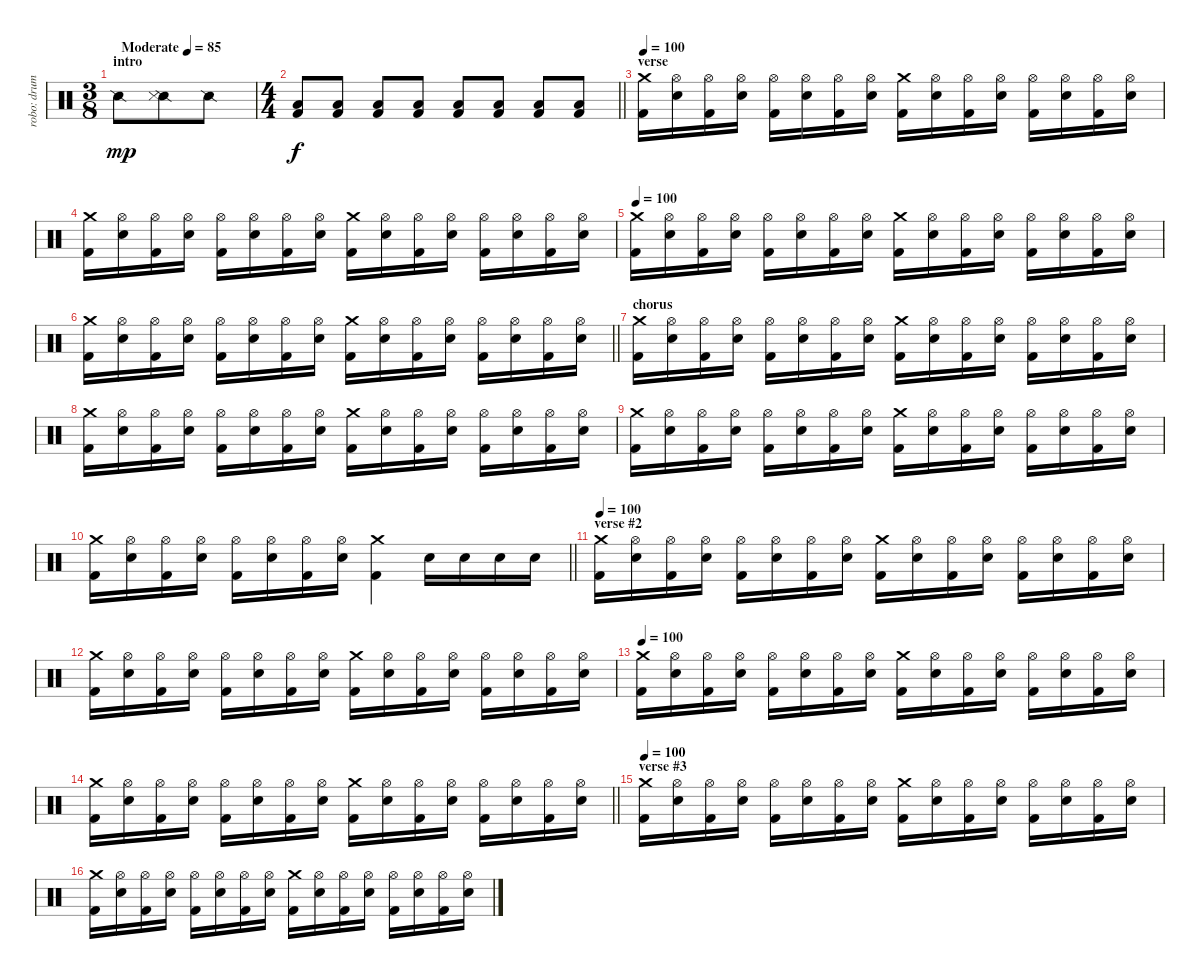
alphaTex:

\track ("robo: drums" "robo: drum") {instrument percussion}
\staff {score}
\articulation defaults
\ts (3 8)
\section ("" "intro")
\tempo (85 "Moderate")
\clef neutral
\ks c "Snare (side stick) 2".8{dy mp}
("Snare (side stick) 2" "Metronome (hit)").8 "Snare (side stick) 2".8 |
\ts (4 4)
\barLineRight lightlight
("Low Tom (hit)" "Kick (hit) 2").8{dy f} ("Low Tom (hit)" "Kick (hit) 2").8 ("Low Tom (hit)" "Kick (hit) 2").8 ("Low Tom (hit)" "Kick (hit) 2").8 ("Low Tom (hit)" "Kick (hit) 2").8 ("Low Tom (hit)" "Kick (hit) 2").8 ("Low Tom (hit)" "Kick (hit) 2").8 ("Low Tom (hit)" "Kick (hit) 2").8 |
\section ("" "verse")
\tempo 100
("Crash medium (hit)" "Kick (hit) 2").16 ("Hi-Hat (open)" "Electric Snare (hit)").16 ("Hi-Hat (open)" "Kick (hit) 2").16 ("Hi-Hat (open)" "Electric Snare (hit)").16 ("Hi-Hat (open)" "Kick (hit) 2").16 ("Hi-Hat (open)" "Electric Snare (hit)").16 ("Hi-Hat (open)" "Kick (hit) 2").16 ("Hi-Hat (open)" "Electric Snare (hit)").16 ("Crash medium (hit)" "Kick (hit) 2").16 ("Hi-Hat (open)" "Electric Snare (hit)").16 ("Hi-Hat (open)" "Kick (hit) 2").16 ("Hi-Hat (open)" "Electric Snare (hit)").16 ("Hi-Hat (open)" "Kick (hit) 2").16 ("Hi-Hat (open)" "Electric Snare (hit)").16 ("Hi-Hat (open)" "Kick (hit) 2").16 ("Hi-Hat (open)" "Electric Snare (hit)").16 |
("Crash medium (hit)" "Kick (hit) 2").16 ("Hi-Hat (open)" "Electric Snare (hit)").16 ("Hi-Hat (open)" "Kick (hit) 2").16 ("Hi-Hat (open)" "Electric Snare (hit)").16 ("Hi-Hat (open)" "Kick (hit) 2").16 ("Hi-Hat (open)" "Electric Snare (hit)").16 ("Hi-Hat (open)" "Kick (hit) 2").16 ("Hi-Hat (open)" "Electric Snare (hit)").16 ("Crash medium (hit)" "Kick (hit) 2").16 ("Hi-Hat (open)" "Electric Snare (hit)").16 ("Hi-Hat (open)" "Kick (hit) 2").16 ("Hi-Hat (open)" "Electric Snare (hit)").16 ("Hi-Hat (open)" "Kick (hit) 2").16 ("Hi-Hat (open)" "Electric Snare (hit)").16 ("Hi-Hat (open)" "Kick (hit) 2").16 ("Hi-Hat (open)" "Electric Snare (hit)").16 |
\tempo 100
("Crash medium (hit)" "Kick (hit) 2").16 ("Hi-Hat (open)" "Electric Snare (hit)").16 ("Hi-Hat (open)" "Kick (hit) 2").16 ("Hi-Hat (open)" "Electric Snare (hit)").16 ("Hi-Hat (open)" "Kick (hit) 2").16 ("Hi-Hat (open)" "Electric Snare (hit)").16 ("Hi-Hat (open)" "Kick (hit) 2").16 ("Hi-Hat (open)" "Electric Snare (hit)").16 ("Crash medium (hit)" "Kick (hit) 2").16 ("Hi-Hat (open)" "Electric Snare (hit)").16 ("Hi-Hat (open)" "Kick (hit) 2").16 ("Hi-Hat (open)" "Electric Snare (hit)").16 ("Hi-Hat (open)" "Kick (hit) 2").16 ("Hi-Hat (open)" "Electric Snare (hit)").16 ("Hi-Hat (open)" "Kick (hit) 2").16 ("Hi-Hat (open)" "Electric Snare (hit)").16 |
\barLineRight lightlight
("Crash medium (hit)" "Kick (hit) 2").16 ("Hi-Hat (open)" "Electric Snare (hit)").16 ("Hi-Hat (open)" "Kick (hit) 2").16 ("Hi-Hat (open)" "Electric Snare (hit)").16 ("Hi-Hat (open)" "Kick (hit) 2").16 ("Hi-Hat (open)" "Electric Snare (hit)").16 ("Hi-Hat (open)" "Kick (hit) 2").16 ("Hi-Hat (open)" "Electric Snare (hit)").16 ("Crash medium (hit)" "Kick (hit) 2").16 ("Hi-Hat (open)" "Electric Snare (hit)").16 ("Hi-Hat (open)" "Kick (hit) 2").16 ("Hi-Hat (open)" "Electric Snare (hit)").16 ("Hi-Hat (open)" "Kick (hit) 2").16 ("Hi-Hat (open)" "Electric Snare (hit)").16 ("Hi-Hat (open)" "Kick (hit) 2").16 ("Hi-Hat (open)" "Electric Snare (hit)").16 |
\section ("" "chorus")
("Crash medium (hit)" "Kick (hit) 2").16 ("Hi-Hat (open)" "Electric Snare (hit)").16 ("Hi-Hat (open)" "Kick (hit) 2").16 ("Hi-Hat (open)" "Electric Snare (hit)").16 ("Hi-Hat (open)" "Kick (hit) 2").16 ("Hi-Hat (open)" "Electric Snare (hit)").16 ("Hi-Hat (open)" "Kick (hit) 2").16 ("Hi-Hat (open)" "Electric Snare (hit)").16 ("Crash medium (hit)" "Kick (hit) 2").16 ("Hi-Hat (open)" "Electric Snare (hit)").16 ("Hi-Hat (open)" "Kick (hit) 2").16 ("Hi-Hat (open)" "Electric Snare (hit)").16 ("Hi-Hat (open)" "Kick (hit) 2").16 ("Hi-Hat (open)" "Electric Snare (hit)").16 ("Hi-Hat (open)" "Kick (hit) 2").16 ("Hi-Hat (open)" "Electric Snare (hit)").16 |
("Crash medium (hit)" "Kick (hit) 2").16 ("Hi-Hat (open)" "Electric Snare (hit)").16 ("Hi-Hat (open)" "Kick (hit) 2").16 ("Hi-Hat (open)" "Electric Snare (hit)").16 ("Hi-Hat (open)" "Kick (hit) 2").16 ("Hi-Hat (open)" "Electric Snare (hit)").16 ("Hi-Hat (open)" "Kick (hit) 2").16 ("Hi-Hat (open)" "Electric Snare (hit)").16 ("Crash medium (hit)" "Kick (hit) 2").16 ("Hi-Hat (open)" "Electric Snare (hit)").16 ("Hi-Hat (open)" "Kick (hit) 2").16 ("Hi-Hat (open)" "Electric Snare (hit)").16 ("Hi-Hat (open)" "Kick (hit) 2").16 ("Hi-Hat (open)" "Electric Snare (hit)").16 ("Hi-Hat (open)" "Kick (hit) 2").16 ("Hi-Hat (open)" "Electric Snare (hit)").16 |
("Crash medium (hit)" "Kick (hit) 2").16 ("Hi-Hat (open)" "Electric Snare (hit)").16 ("Hi-Hat (open)" "Kick (hit) 2").16 ("Hi-Hat (open)" "Electric Snare (hit)").16 ("Hi-Hat (open)" "Kick (hit) 2").16 ("Hi-Hat (open)" "Electric Snare (hit)").16 ("Hi-Hat (open)" "Kick (hit) 2").16 ("Hi-Hat (open)" "Electric Snare (hit)").16 ("Crash medium (hit)" "Kick (hit) 2").16 ("Hi-Hat (open)" "Electric Snare (hit)").16 ("Hi-Hat (open)" "Kick (hit) 2").16 ("Hi-Hat (open)" "Electric Snare (hit)").16 ("Hi-Hat (open)" "Kick (hit) 2").16 ("Hi-Hat (open)" "Electric Snare (hit)").16 ("Hi-Hat (open)" "Kick (hit) 2").16 ("Hi-Hat (open)" "Electric Snare (hit)").16 |
\barLineRight lightlight
("Crash medium (hit)" "Kick (hit) 2").16 ("Hi-Hat (open)" "Electric Snare (hit)").16 ("Hi-Hat (open)" "Kick (hit) 2").16 ("Hi-Hat (open)" "Electric Snare (hit)").16 ("Hi-Hat (open)" "Kick (hit) 2").16 ("Hi-Hat (open)" "Electric Snare (hit)").16 ("Hi-Hat (open)" "Kick (hit) 2").16 ("Hi-Hat (open)" "Electric Snare (hit)").16 ("Crash medium (hit)" "Kick (hit) 2").4 "Electric Snare (hit)".16 "Electric Snare (hit)".16 "Electric Snare (hit)".16 "Electric Snare (hit)".16 |
\section ("" "verse #2")
\tempo 100
("Crash medium (hit)" "Kick (hit) 2").16 ("Hi-Hat (open)" "Electric Snare (hit)").16 ("Hi-Hat (open)" "Kick (hit) 2").16 ("Hi-Hat (open)" "Electric Snare (hit)").16 ("Hi-Hat (open)" "Kick (hit) 2").16 ("Hi-Hat (open)" "Electric Snare (hit)").16 ("Hi-Hat (open)" "Kick (hit) 2").16 ("Hi-Hat (open)" "Electric Snare (hit)").16 ("Crash medium (hit)" "Kick (hit) 2").16 ("Hi-Hat (open)" "Electric Snare (hit)").16 ("Hi-Hat (open)" "Kick (hit) 2").16 ("Hi-Hat (open)" "Electric Snare (hit)").16 ("Hi-Hat (open)" "Kick (hit) 2").16 ("Hi-Hat (open)" "Electric Snare (hit)").16 ("Hi-Hat (open)" "Kick (hit) 2").16 ("Hi-Hat (open)" "Electric Snare (hit)").16 |
("Crash medium (hit)" "Kick (hit) 2").16 ("Hi-Hat (open)" "Electric Snare (hit)").16 ("Hi-Hat (open)" "Kick (hit) 2").16 ("Hi-Hat (open)" "Electric Snare (hit)").16 ("Hi-Hat (open)" "Kick (hit) 2").16 ("Hi-Hat (open)" "Electric Snare (hit)").16 ("Hi-Hat (open)" "Kick (hit) 2").16 ("Hi-Hat (open)" "Electric Snare (hit)").16 ("Crash medium (hit)" "Kick (hit) 2").16 ("Hi-Hat (open)" "Electric Snare (hit)").16 ("Hi-Hat (open)" "Kick (hit) 2").16 ("Hi-Hat (open)" "Electric Snare (hit)").16 ("Hi-Hat (open)" "Kick (hit) 2").16 ("Hi-Hat (open)" "Electric Snare (hit)").16 ("Hi-Hat (open)" "Kick (hit) 2").16 ("Hi-Hat (open)" "Electric Snare (hit)").16 |
\tempo 100
("Crash medium (hit)" "Kick (hit) 2").16 ("Hi-Hat (open)" "Electric Snare (hit)").16 ("Hi-Hat (open)" "Kick (hit) 2").16 ("Hi-Hat (open)" "Electric Snare (hit)").16 ("Hi-Hat (open)" "Kick (hit) 2").16 ("Hi-Hat (open)" "Electric Snare (hit)").16 ("Hi-Hat (open)" "Kick (hit) 2").16 ("Hi-Hat (open)" "Electric Snare (hit)").16 ("Crash medium (hit)" "Kick (hit) 2").16 ("Hi-Hat (open)" "Electric Snare (hit)").16 ("Hi-Hat (open)" "Kick (hit) 2").16 ("Hi-Hat (open)" "Electric Snare (hit)").16 ("Hi-Hat (open)" "Kick (hit) 2").16 ("Hi-Hat (open)" "Electric Snare (hit)").16 ("Hi-Hat (open)" "Kick (hit) 2").16 ("Hi-Hat (open)" "Electric Snare (hit)").16 |
\barLineRight lightlight
("Crash medium (hit)" "Kick (hit) 2").16 ("Hi-Hat (open)" "Electric Snare (hit)").16 ("Hi-Hat (open)" "Kick (hit) 2").16 ("Hi-Hat (open)" "Electric Snare (hit)").16 ("Hi-Hat (open)" "Kick (hit) 2").16 ("Hi-Hat (open)" "Electric Snare (hit)").16 ("Hi-Hat (open)" "Kick (hit) 2").16 ("Hi-Hat (open)" "Electric Snare (hit)").16 ("Crash medium (hit)" "Kick (hit) 2").16 ("Hi-Hat (open)" "Electric Snare (hit)").16 ("Hi-Hat (open)" "Kick (hit) 2").16 ("Hi-Hat (open)" "Electric Snare (hit)").16 ("Hi-Hat (open)" "Kick (hit) 2").16 ("Hi-Hat (open)" "Electric Snare (hit)").16 ("Hi-Hat (open)" "Kick (hit) 2").16 ("Hi-Hat (open)" "Electric Snare (hit)").16 |
\section ("" "verse #3")
\tempo 100
("Crash medium (hit)" "Kick (hit) 2").16 ("Hi-Hat (open)" "Electric Snare (hit)").16 ("Hi-Hat (open)" "Kick (hit) 2").16 ("Hi-Hat (open)" "Electric Snare (hit)").16 ("Hi-Hat (open)" "Kick (hit) 2").16 ("Hi-Hat (open)" "Electric Snare (hit)").16 ("Hi-Hat (open)" "Kick (hit) 2").16 ("Hi-Hat (open)" "Electric Snare (hit)").16 ("Crash medium (hit)" "Kick (hit) 2").16 ("Hi-Hat (open)" "Electric Snare (hit)").16 ("Hi-Hat (open)" "Kick (hit) 2").16 ("Hi-Hat (open)" "Electric Snare (hit)").16 ("Hi-Hat (open)" "Kick (hit) 2").16 ("Hi-Hat (open)" "Electric Snare (hit)").16 ("Hi-Hat (open)" "Kick (hit) 2").16 ("Hi-Hat (open)" "Electric Snare (hit)").16 |
("Crash medium (hit)" "Kick (hit) 2").16 ("Hi-Hat (open)" "Electric Snare (hit)").16 ("Hi-Hat (open)" "Kick (hit) 2").16 ("Hi-Hat (open)" "Electric Snare (hit)").16 ("Hi-Hat (open)" "Kick (hit) 2").16 ("Hi-Hat (open)" "Electric Snare (hit)").16 ("Hi-Hat (open)" "Kick (hit) 2").16 ("Hi-Hat (open)" "Electric Snare (hit)").16 ("Crash medium (hit)" "Kick (hit) 2").16 ("Hi-Hat (open)" "Electric Snare (hit)").16 ("Hi-Hat (open)" "Kick (hit) 2").16 ("Hi-Hat (open)" "Electric Snare (hit)").16 ("Hi-Hat (open)" "Kick (hit) 2").16 ("Hi-Hat (open)" "Electric Snare (hit)").16 ("Hi-Hat (open)" "Kick (hit) 2").16 ("Hi-Hat (open)" "Electric Snare (hit)").16
